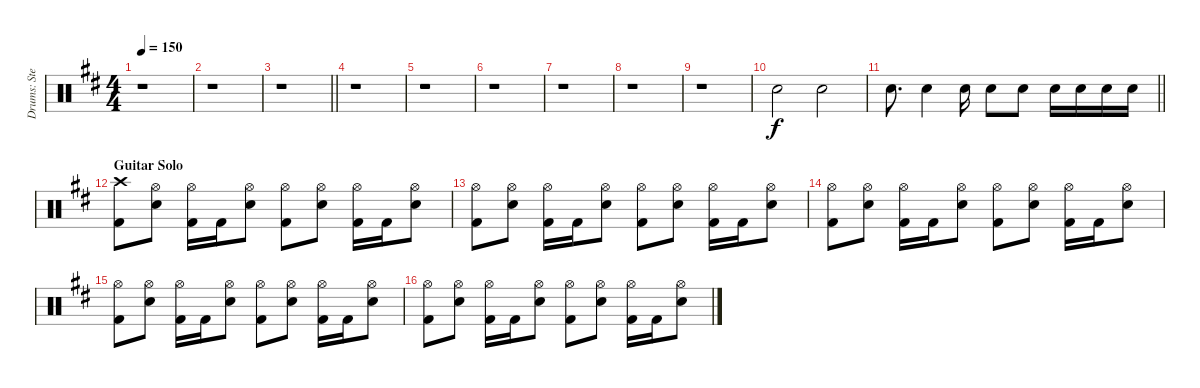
\track ("Drums: Stefan Svantesson" "Drums: Ste") {instrument percussion}
\staff {score}
\articulation defaults
\ts (4 4)
\tempo 150
\clef neutral
\ks d
r.1{dy f} |
r.1 |
\barLineRight lightlight
r.1 |
r.1 |
r.1 |
r.1 |
r.1 |
r.1 |
r.1 |
"Electric Snare (hit)".2 "Electric Snare (hit)".2 |
\barLineRight lightlight "Electric Snare (hit)".8{d} "Electric Snare (hit)".4 "Electric Snare (hit)".16 "Electric Snare (hit)".8 "Electric Snare (hit)".8 "Electric Snare (hit)".16 "Electric Snare (hit)".16 "Electric Snare (hit)".16 "Electric Snare (hit)".16
|
\section ("" "Guitar Solo")
("Crash high (hit)" "Kick (hit) 2").8 ("Hi-Hat (open)" "Electric Snare (hit)").8 ("Hi-Hat (open)" "Kick (hit) 2").16 "Kick (hit) 2".16 ("Hi-Hat (open)" "Electric Snare (hit)").8 ("Hi-Hat (open)" "Kick (hit) 2").8 ("Hi-Hat (open)" "Electric Snare (hit)").8 ("Hi-Hat (open)" "Kick (hit) 2").16 "Kick (hit) 2".16 ("Hi-Hat (open)" "Electric Snare (hit)").8 |
("Hi-Hat (open)" "Kick (hit) 2").8 ("Hi-Hat (open)" "Electric Snare (hit)").8 ("Hi-Hat (open)" "Kick (hit) 2").16 "Kick (hit) 2".16 ("Hi-Hat (open)" "Electric Snare (hit)").8 ("Hi-Hat (open)" "Kick (hit) 2").8 ("Hi-Hat (open)" "Electric Snare (hit)").8 ("Hi-Hat (open)" "Kick (hit) 2").16 "Kick (hit) 2".16 ("Hi-Hat (open)" "Electric Snare (hit)").8 |
("Hi-Hat (open)" "Kick (hit) 2").8 ("Hi-Hat (open)" "Electric Snare (hit)").8 ("Hi-Hat (open)" "Kick (hit) 2").16 "Kick (hit) 2".16 ("Hi-Hat (open)" "Electric Snare (hit)").8 ("Hi-Hat (open)" "Kick (hit) 2").8 ("Hi-Hat (open)" "Electric Snare (hit)").8 ("Hi-Hat (open)" "Kick (hit) 2").16 "Kick (hit) 2".16 ("Hi-Hat (open)" "Electric Snare (hit)").8 |
("Hi-Hat (open)" "Kick (hit) 2").8 ("Hi-Hat (open)" "Electric Snare (hit)").8 ("Hi-Hat (open)" "Kick (hit) 2").16 "Kick (hit) 2".16 ("Hi-Hat (open)" "Electric Snare (hit)").8 ("Hi-Hat (open)" "Kick (hit) 2").8 ("Hi-Hat (open)" "Electric Snare (hit)").8 ("Hi-Hat (open)" "Kick (hit) 2").16 "Kick (hit) 2".16 ("Hi-Hat (open)" "Electric Snare (hit)").8 |
("Hi-Hat (open)" "Kick (hit) 2").8 ("Hi-Hat (open)" "Electric Snare (hit)").8 ("Hi-Hat (open)" "Kick (hit) 2").16 "Kick (hit) 2".16 ("Hi-Hat (open)" "Electric Snare (hit)").8 ("Hi-Hat (open)" "Kick (hit) 2").8 ("Hi-Hat (open)" "Electric Snare (hit)").8 ("Hi-Hat (open)" "Kick (hit) 2").16 "Kick (hit) 2".16 ("Hi-Hat (open)" "Electric Snare (hit)").8
